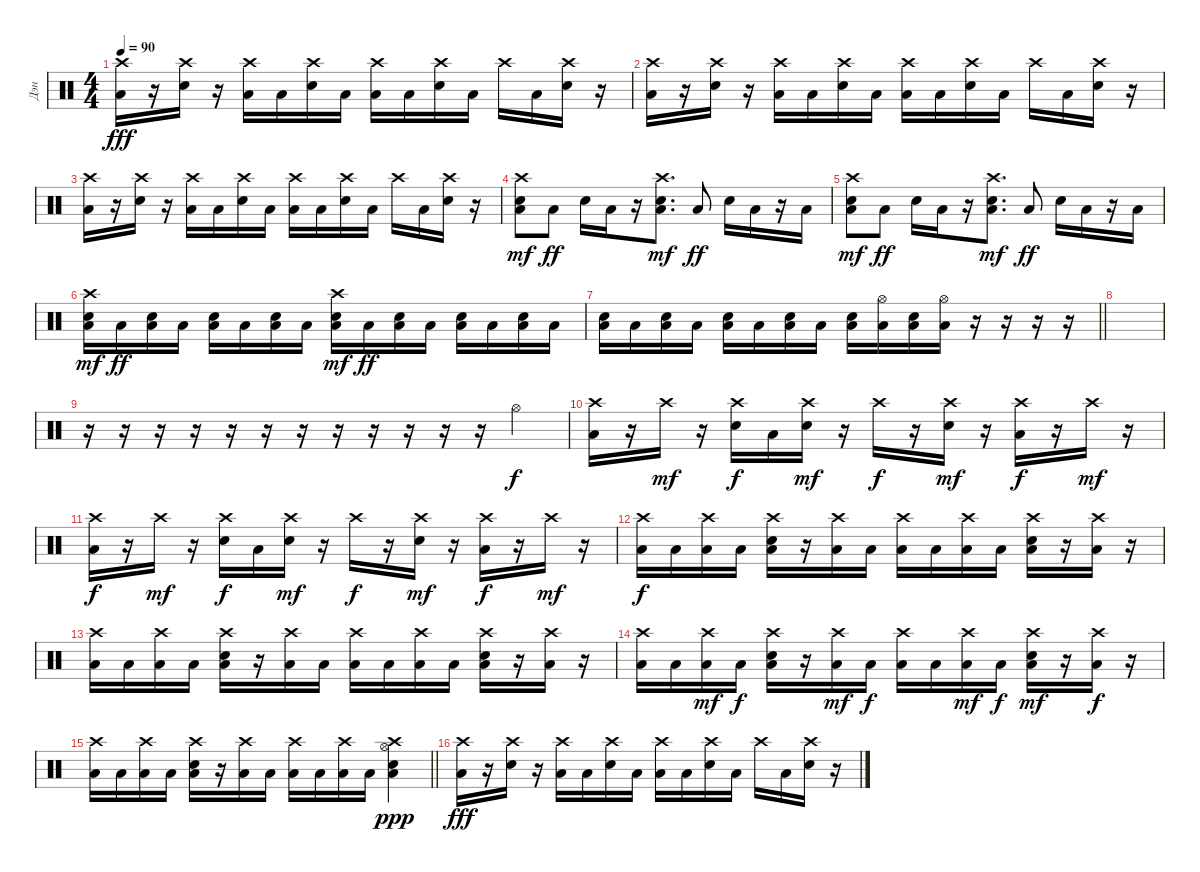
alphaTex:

\track ("Дэн" "Дэн") {instrument percussion}
\staff {score}
\articulation defaults
\ts (4 4)
\tempo 90
\clef neutral
\ks c
("Low Floor Tom (hit)" "Crash high (hit)").16{dy fff} r.16 ("Crash high (hit)" "Electric Snare (hit)").16 r.16 ("Low Floor Tom (hit)" "Crash high (hit)").16 "Low Floor Tom (hit)".16 ("Crash high (hit)" "Electric Snare (hit)").16 "Low Floor Tom (hit)".16 ("Crash high (hit)" "Low Floor Tom (hit)").16 "Low Floor Tom (hit)".16 ("Crash high (hit)" "Electric Snare (hit)").16 "Low Floor Tom (hit)".16 "Crash high (hit)".16 "Low Floor Tom (hit)".16 ("Crash high (hit)" "Electric Snare (hit)").16 r.16 |
("Low Floor Tom (hit)" "Crash high (hit)").16 r.16 ("Crash high (hit)" "Electric Snare (hit)").16 r.16 ("Low Floor Tom (hit)" "Crash high (hit)").16 "Low Floor Tom (hit)".16 ("Crash high (hit)" "Electric Snare (hit)").16 "Low Floor Tom (hit)".16 ("Crash high (hit)" "Low Floor Tom (hit)").16 "Low Floor Tom (hit)".16 ("Crash high (hit)" "Electric Snare (hit)").16 "Low Floor Tom (hit)".16 "Crash high (hit)".16 "Low Floor Tom (hit)".16 ("Crash high (hit)" "Electric Snare (hit)").16 r.16 |
("Low Floor Tom (hit)" "Crash high (hit)").16 r.16 ("Crash high (hit)" "Electric Snare (hit)").16 r.16 ("Low Floor Tom (hit)" "Crash high (hit)").16 "Low Floor Tom (hit)".16 ("Crash high (hit)" "Electric Snare (hit)").16 "Low Floor Tom (hit)".16 ("Crash high (hit)" "Low Floor Tom (hit)").16 "Low Floor Tom (hit)".16 ("Crash high (hit)" "Electric Snare (hit)").16 "Low Floor Tom (hit)".16 "Crash high (hit)".16 "Low Floor Tom (hit)".16 ("Crash high (hit)" "Electric Snare (hit)").16 r.16 |
("Low Floor Tom (hit)" "Electric Snare (hit)" "Crash high (hit)").8{dy mf} "Low Floor Tom (hit)".8{dy ff} "Electric Snare (hit)".16 "Low Floor Tom (hit)".16 r.16 ("Low Floor Tom (hit)" "Electric Snare (hit)" "Crash high (hit)").8{d dy mf} "Low Floor Tom (hit)".8{dy ff} "Electric Snare (hit)".16 "Low Floor Tom (hit)".16 r.16 "Low Floor Tom (hit)".16 |
("Low Floor Tom (hit)" "Electric Snare (hit)" "Crash high (hit)").8{dy mf} "Low Floor Tom (hit)".8{dy ff} "Electric Snare (hit)".16 "Low Floor Tom (hit)".16 r.16 ("Low Floor Tom (hit)" "Electric Snare (hit)" "Crash high (hit)").8{d dy mf} "Low Floor Tom (hit)".8{dy ff} "Electric Snare (hit)".16 "Low Floor Tom (hit)".16 r.16 "Low Floor Tom (hit)".16 |
("Low Floor Tom (hit)" "Electric Snare (hit)" "Crash high (hit)").16{dy mf} "Low Floor Tom (hit)".16{dy ff} ("Low Floor Tom (hit)" "Electric Snare (hit)").16 "Low Floor Tom (hit)".16 ("Low Floor Tom (hit)" "Electric Snare (hit)").16 "Low Floor Tom (hit)".16 ("Low Floor Tom (hit)" "Electric Snare (hit)").16 "Low Floor Tom (hit)".16 ("Low Floor Tom (hit)" "Electric Snare (hit)" "Crash high (hit)").16{dy mf} "Low Floor Tom (hit)".16{dy ff} ("Low Floor Tom (hit)" "Electric Snare (hit)").16 "Low Floor Tom (hit)".16 ("Low Floor Tom (hit)" "Electric Snare (hit)").16 "Low Floor Tom (hit)".16 ("Low Floor Tom (hit)" "Electric Snare (hit)").16 "Low Floor Tom (hit)".16 |
\barLineRight lightlight
("Low Floor Tom (hit)" "Electric Snare (hit)").16 "Low Floor Tom (hit)".16 ("Low Floor Tom (hit)" "Electric Snare (hit)").16 "Low Floor Tom (hit)".16 ("Low Floor Tom (hit)" "Electric Snare (hit)").16 "Low Floor Tom (hit)".16 ("Low Floor Tom (hit)" "Electric Snare (hit)").16 "Low Floor Tom (hit)".16 ("Low Floor Tom (hit)" "Electric Snare (hit)").16 ("Low Floor Tom (hit)" "Hi-Hat (open)").16 ("Low Floor Tom (hit)" "Electric Snare (hit)").16 ("Low Floor Tom (hit)" "Hi-Hat (open)").16 r.16 r.16 r.16 r.16 |
|
r.16 r.16 r.16 r.16 r.16 r.16 r.16 r.16 r.16 r.16 r.16 r.16 "Hi-Hat (open)".4{dy f} |
("Crash high (hit)" "Low Floor Tom (hit)").16 r.16 "Crash high (hit)".16{dy mf} r.16 ("Crash high (hit)" "Electric Snare (hit)").16{dy f} "Low Floor Tom (hit)".16 ("Crash high (hit)" "Electric Snare (hit)").16{dy mf} r.16 "Crash high (hit)".16{dy f} r.16 ("Crash high (hit)" "Electric Snare (hit)").16{dy mf} r.16 ("Crash high (hit)" "Low Floor Tom (hit)").16{dy f} r.16 "Crash high (hit)".16{dy mf} r.16 |
("Crash high (hit)" "Low Floor Tom (hit)").16{dy f} r.16 "Crash high (hit)".16{dy mf} r.16 ("Crash high (hit)" "Electric Snare (hit)").16{dy f} "Low Floor Tom (hit)".16 ("Crash high (hit)" "Electric Snare (hit)").16{dy mf} r.16 "Crash high (hit)".16{dy f} r.16 ("Crash high (hit)" "Electric Snare (hit)").16{dy mf} r.16 ("Crash high (hit)" "Low Floor Tom (hit)").16{dy f} r.16 "Crash high (hit)".16{dy mf} r.16 |
("Crash high (hit)" "Low Floor Tom (hit)").16{dy f} "Low Floor Tom (hit)".16 ("Crash high (hit)" "Low Floor Tom (hit)").16 "Low Floor Tom (hit)".16 ("Crash high (hit)" "Low Floor Tom (hit)" "Electric Snare (hit)").16 r.16 ("Crash high (hit)" "Low Floor Tom (hit)").16 "Low Floor Tom (hit)".16 ("Crash high (hit)" "Low Floor Tom (hit)").16 "Low Floor Tom (hit)".16 ("Crash high (hit)" "Low Floor Tom (hit)").16 "Low Floor Tom (hit)".16 ("Crash high (hit)" "Low Floor Tom (hit)" "Electric Snare (hit)").16 r.16 ("Low Floor Tom (hit)" "Crash high (hit)").16 r.16 |
("Crash high (hit)" "Low Floor Tom (hit)").16 "Low Floor Tom (hit)".16 ("Crash high (hit)" "Low Floor Tom (hit)").16 "Low Floor Tom (hit)".16 ("Crash high (hit)" "Low Floor Tom (hit)" "Electric Snare (hit)").16 r.16 ("Crash high (hit)" "Low Floor Tom (hit)").16 "Low Floor Tom (hit)".16 ("Crash high (hit)" "Low Floor Tom (hit)").16 "Low Floor Tom (hit)".16 ("Crash high (hit)" "Low Floor Tom (hit)").16 "Low Floor Tom (hit)".16 ("Crash high (hit)" "Low Floor Tom (hit)" "Electric Snare (hit)").16 r.16 ("Low Floor Tom (hit)" "Crash high (hit)").16 r.16 |
("Crash high (hit)" "Low Floor Tom (hit)").16 "Low Floor Tom (hit)".16 ("Crash high (hit)" "Low Floor Tom (hit)").16{dy mf} "Low Floor Tom (hit)".16{dy f} ("Crash high (hit)" "Low Floor Tom (hit)" "Electric Snare (hit)").16 r.16 ("Crash high (hit)" "Low Floor Tom (hit)").16{dy mf} "Low Floor Tom (hit)".16{dy f} ("Crash high (hit)" "Low Floor Tom (hit)").16 "Low Floor Tom (hit)".16 ("Crash high (hit)" "Low Floor Tom (hit)").16{dy mf} "Low Floor Tom (hit)".16{dy f} ("Crash high (hit)" "Low Floor Tom (hit)" "Electric Snare (hit)").16{dy mf} r.16 ("Low Floor Tom (hit)" "Crash high (hit)").16{dy f} r.16 |
\barLineRight lightlight
("Crash high (hit)" "Low Floor Tom (hit)").16 "Low Floor Tom (hit)".16 ("Crash high (hit)" "Low Floor Tom (hit)").16 "Low Floor Tom (hit)".16 ("Crash high (hit)" "Low Floor Tom (hit)" "Electric Snare (hit)").16 r.16 ("Crash high (hit)" "Low Floor Tom (hit)").16 "Low Floor Tom (hit)".16 ("Crash high (hit)" "Low Floor Tom (hit)").16 "Low Floor Tom (hit)".16 ("Crash high (hit)" "Low Floor Tom (hit)").16 "Low Floor Tom (hit)".16 ("Crash high (hit)" "Low Floor Tom (hit)" "Electric Snare (hit)" "Hi-Hat (open)").4{dy ppp} |
("Low Floor Tom (hit)" "Crash high (hit)").16{dy fff} r.16 ("Crash high (hit)" "Electric Snare (hit)").16 r.16 ("Low Floor Tom (hit)" "Crash high (hit)").16 "Low Floor Tom (hit)".16 ("Crash high (hit)" "Electric Snare (hit)").16 "Low Floor Tom (hit)".16 ("Crash high (hit)" "Low Floor Tom (hit)").16 "Low Floor Tom (hit)".16 ("Crash high (hit)" "Electric Snare (hit)").16 "Low Floor Tom (hit)".16 "Crash high (hit)".16 "Low Floor Tom (hit)".16 ("Crash high (hit)" "Electric Snare (hit)").16 r.16
